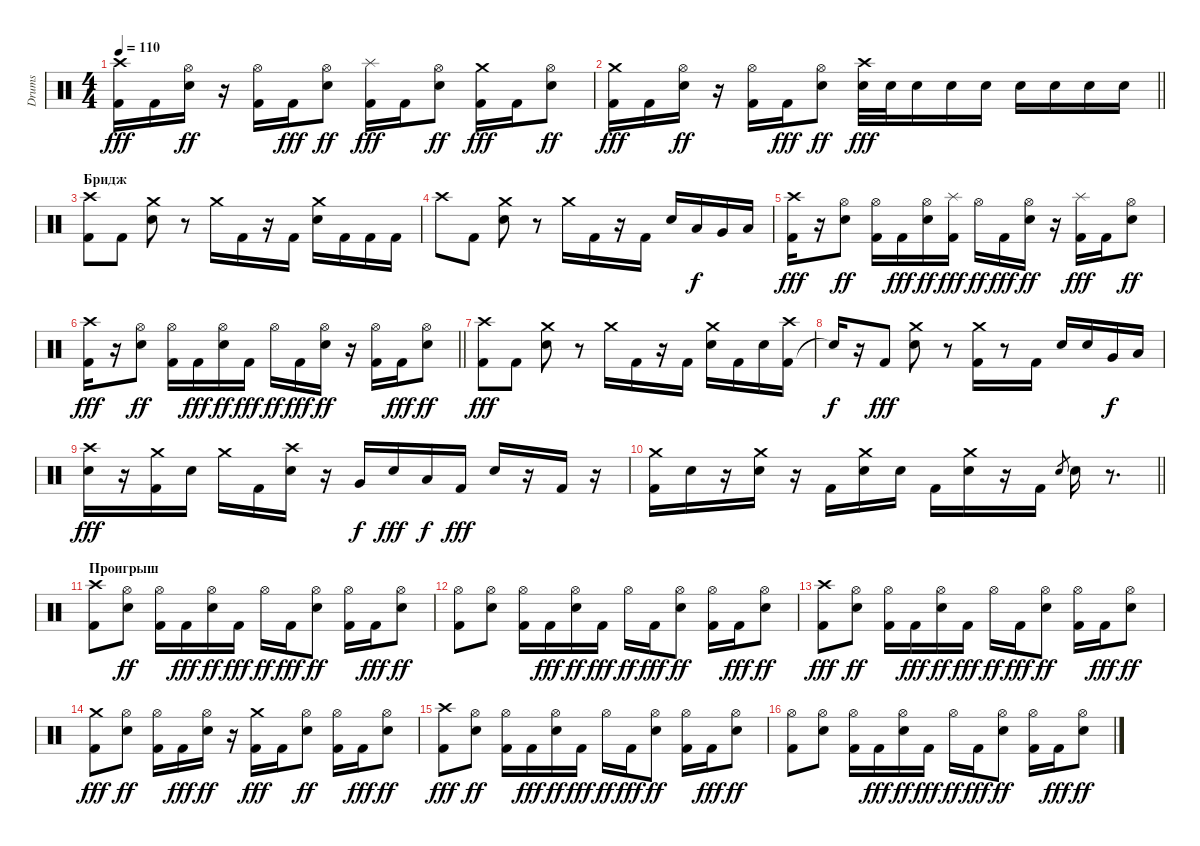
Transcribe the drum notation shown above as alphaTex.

\track ("Drums" "Drums") {instrument percussion}
\staff {score}
\articulation defaults
\ts (4 4)
\tempo 110
\clef neutral
\ks c
("Kick (hit) 2" "Crash high (hit)").16{dy fff} "Kick (hit) 2".16 ("Electric Snare (hit)" "Hi-Hat (open)").16{dy ff} r.16 ("Kick (hit) 2" "Hi-Hat (open)").16 "Kick (hit) 2".16{dy fff} ("Electric Snare (hit)" "Hi-Hat (open)").8{dy ff} ("Kick (hit) 2" "Splash (hit)").16{dy fff} "Kick (hit) 2".16 ("Electric Snare (hit)" "Hi-Hat (open)").8{dy ff} ("Kick (hit) 2" "Crash medium (hit)").16{dy fff} "Kick (hit) 2".16 ("Electric Snare (hit)" "Hi-Hat (open)").8{dy ff} |
\barLineRight lightlight
("Kick (hit) 2" "Crash medium (hit)").16{dy fff} "Kick (hit) 2".16 ("Electric Snare (hit)" "Hi-Hat (open)").16{dy ff} r.16 ("Kick (hit) 2" "Hi-Hat (open)").16 "Kick (hit) 2".16{dy fff} ("Electric Snare (hit)" "Hi-Hat (open)").8{dy ff} ("Electric Snare (hit)" "Crash high (hit)").32{dy fff} "Electric Snare (hit)".32 "Electric Snare (hit)".16 "Electric Snare (hit)".16 "Electric Snare (hit)".16 "Electric Snare (hit)".16 "Electric Snare (hit)".16 "Electric Snare (hit)".16 "Electric Snare (hit)".16 |
\section ("" "Бридж")
("Kick (hit) 2" "Crash high (hit)").8 "Kick (hit) 2".8 ("Electric Snare (hit)" "Crash medium (hit)").8 r.8 "Crash medium (hit)".16 "Kick (hit) 2".16 r.16 "Kick (hit) 2".16 ("Electric Snare (hit)" "Crash medium (hit)").16 "Kick (hit) 2".16 "Kick (hit) 2".16 "Kick (hit) 2".16 |
"Crash high (hit)".8 "Kick (hit) 2".8 ("Electric Snare (hit)" "Crash medium (hit)").8 r.8 "Crash medium (hit)".16 "Kick (hit) 2".16 r.16 "Kick (hit) 2".16 "Electric Snare (hit)".16 "Low Tom (hit)".16{dy f} "Very Low Tom (hit)".16 "Low Floor Tom (hit)".16 |
("Kick (hit) 2" "Crash high (hit)").16{dy fff} r.16 ("Electric Snare (hit)" "Hi-Hat (open)").8{dy ff} ("Kick (hit) 2" "Hi-Hat (open)").16 "Kick (hit) 2".16{dy fff} ("Electric Snare (hit)" "Hi-Hat (open)").16{dy ff} ("Kick (hit) 2" "Splash (hit)").16{dy fff} "Hi-Hat (open)".16{dy ff} "Kick (hit) 2".16{dy fff} ("Electric Snare (hit)" "Hi-Hat (open)").16{dy ff} r.16 ("Kick (hit) 2" "Splash (hit)").16{dy fff} "Kick (hit) 2".16 ("Electric Snare (hit)" "Hi-Hat (open)").8{dy ff} |
\barLineRight lightlight
("Kick (hit) 2" "Crash high (hit)").16{dy fff} r.16 ("Electric Snare (hit)" "Hi-Hat (open)").8{dy ff} ("Kick (hit) 2" "Hi-Hat (open)").16 "Kick (hit) 2".16{dy fff} ("Electric Snare (hit)" "Hi-Hat (open)").16{dy ff} "Kick (hit) 2".16{dy fff} "Hi-Hat (open)".16{dy ff} "Kick (hit) 2".16{dy fff} ("Electric Snare (hit)" "Hi-Hat (open)").16{dy ff} r.16 ("Kick (hit) 2" "Hi-Hat (open)").16 "Kick (hit) 2".16{dy fff} ("Electric Snare (hit)" "Hi-Hat (open)").8{dy ff} |
("Kick (hit) 2" "Crash high (hit)").8{dy fff} "Kick (hit) 2".8 ("Electric Snare (hit)" "Crash medium (hit)").8 r.8 "Crash medium (hit)".16 "Kick (hit) 2".16 r.16 "Kick (hit) 2".16 ("Electric Snare (hit)" "Crash medium (hit)").16 "Kick (hit) 2".16 "Electric Snare (hit)".16 ("Kick (hit) 2" "Crash high (hit)").16 |
"Snare (hit)"{t}.16{dy f} r.16 "Kick (hit) 2".8{dy fff} ("Electric Snare (hit)" "Crash medium (hit)").8 r.8 ("Kick (hit) 2" "Crash medium (hit)").16 r.8 "Kick (hit) 2".16 "Electric Snare (hit)".16 "Electric Snare (hit)".16 "Very Low Tom (hit)".16{dy f} "Low Floor Tom (hit)".16 |
("Electric Snare (hit)" "Crash high (hit)").16{dy fff} r.16 ("Kick (hit) 2" "Crash medium (hit)").16 "Electric Snare (hit)".16 "Crash medium (hit)".16 "Kick (hit) 2".16 ("Electric Snare (hit)" "Crash high (hit)").16 r.16 "Very Low Tom (hit)".16{dy f} "Electric Snare (hit)".16{dy fff} "Low Floor Tom (hit)".16{dy f} "Kick (hit) 2".16{dy fff} "Electric Snare (hit)".16 r.16 "Kick (hit) 2".16 r.16 |
\barLineRight lightlight
("Kick (hit) 2" "Crash medium (hit)").16 "Electric Snare (hit)".16 r.16 ("Electric Snare (hit)" "Crash medium (hit)").16 r.16 "Kick (hit) 2".16 ("Electric Snare (hit)" "Crash medium (hit)").16 "Electric Snare (hit)".16 "Kick (hit) 2".16 ("Electric Snare (hit)" "Crash medium (hit)").16 r.16 "Kick (hit) 2".16 "Electric Snare (hit)".8{gr} "Electric Snare (hit)".16 r.8{d} |
\section ("" "Проигрыш")
("Kick (hit) 2" "Crash high (hit)").8 ("Electric Snare (hit)" "Hi-Hat (open)").8{dy ff} ("Kick (hit) 2" "Hi-Hat (open)").16 "Kick (hit) 2".16{dy fff} ("Electric Snare (hit)" "Hi-Hat (open)").16{dy ff} "Kick (hit) 2".16{dy fff} "Hi-Hat (open)".16{dy ff} "Kick (hit) 2".16{dy fff} ("Electric Snare (hit)" "Hi-Hat (open)").8{dy ff} ("Kick (hit) 2" "Hi-Hat (open)").16 "Kick (hit) 2".16{dy fff} ("Electric Snare (hit)" "Hi-Hat (open)").8{dy ff} |
("Kick (hit) 2" "Hi-Hat (open)").8 ("Electric Snare (hit)" "Hi-Hat (open)").8 ("Kick (hit) 2" "Hi-Hat (open)").16 "Kick (hit) 2".16{dy fff} ("Electric Snare (hit)" "Hi-Hat (open)").16{dy ff} "Kick (hit) 2".16{dy fff} "Hi-Hat (open)".16{dy ff} "Kick (hit) 2".16{dy fff} ("Electric Snare (hit)" "Hi-Hat (open)").8{dy ff} ("Kick (hit) 2" "Hi-Hat (open)").16 "Kick (hit) 2".16{dy fff} ("Electric Snare (hit)" "Hi-Hat (open)").8{dy ff} |
("Kick (hit) 2" "Crash high (hit)").8{dy fff} ("Electric Snare (hit)" "Hi-Hat (open)").8{dy ff} ("Kick (hit) 2" "Hi-Hat (open)").16 "Kick (hit) 2".16{dy fff} ("Electric Snare (hit)" "Hi-Hat (open)").16{dy ff} "Kick (hit) 2".16{dy fff} "Hi-Hat (open)".16{dy ff} "Kick (hit) 2".16{dy fff} ("Electric Snare (hit)" "Hi-Hat (open)").8{dy ff} ("Kick (hit) 2" "Hi-Hat (open)").16 "Kick (hit) 2".16{dy fff} ("Electric Snare (hit)" "Hi-Hat (open)").8{dy ff} |
("Kick (hit) 2" "Crash medium (hit)").8{dy fff} ("Electric Snare (hit)" "Hi-Hat (open)").8{dy ff} ("Kick (hit) 2" "Hi-Hat (open)").16 "Kick (hit) 2".16{dy fff} ("Electric Snare (hit)" "Hi-Hat (open)").16{dy ff} r.16 ("Kick (hit) 2" "Crash medium (hit)").16{dy fff} "Kick (hit) 2".16 ("Electric Snare (hit)" "Hi-Hat (open)").8{dy ff} ("Kick (hit) 2" "Hi-Hat (open)").16 "Kick (hit) 2".16{dy fff} ("Electric Snare (hit)" "Hi-Hat (open)").8{dy ff} |
("Kick (hit) 2" "Crash high (hit)").8{dy fff} ("Electric Snare (hit)" "Hi-Hat (open)").8{dy ff} ("Kick (hit) 2" "Hi-Hat (open)").16 "Kick (hit) 2".16{dy fff} ("Electric Snare (hit)" "Hi-Hat (open)").16{dy ff} "Kick (hit) 2".16{dy fff} "Hi-Hat (open)".16{dy ff} "Kick (hit) 2".16{dy fff} ("Electric Snare (hit)" "Hi-Hat (open)").8{dy ff} ("Kick (hit) 2" "Hi-Hat (open)").16 "Kick (hit) 2".16{dy fff} ("Electric Snare (hit)" "Hi-Hat (open)").8{dy ff} |
("Kick (hit) 2" "Hi-Hat (open)").8 ("Electric Snare (hit)" "Hi-Hat (open)").8 ("Kick (hit) 2" "Hi-Hat (open)").16 "Kick (hit) 2".16{dy fff} ("Electric Snare (hit)" "Hi-Hat (open)").16{dy ff} "Kick (hit) 2".16{dy fff} "Hi-Hat (open)".16{dy ff} "Kick (hit) 2".16{dy fff} ("Electric Snare (hit)" "Hi-Hat (open)").8{dy ff} ("Kick (hit) 2" "Hi-Hat (open)").16 "Kick (hit) 2".16{dy fff} ("Electric Snare (hit)" "Hi-Hat (open)").8{dy ff}
